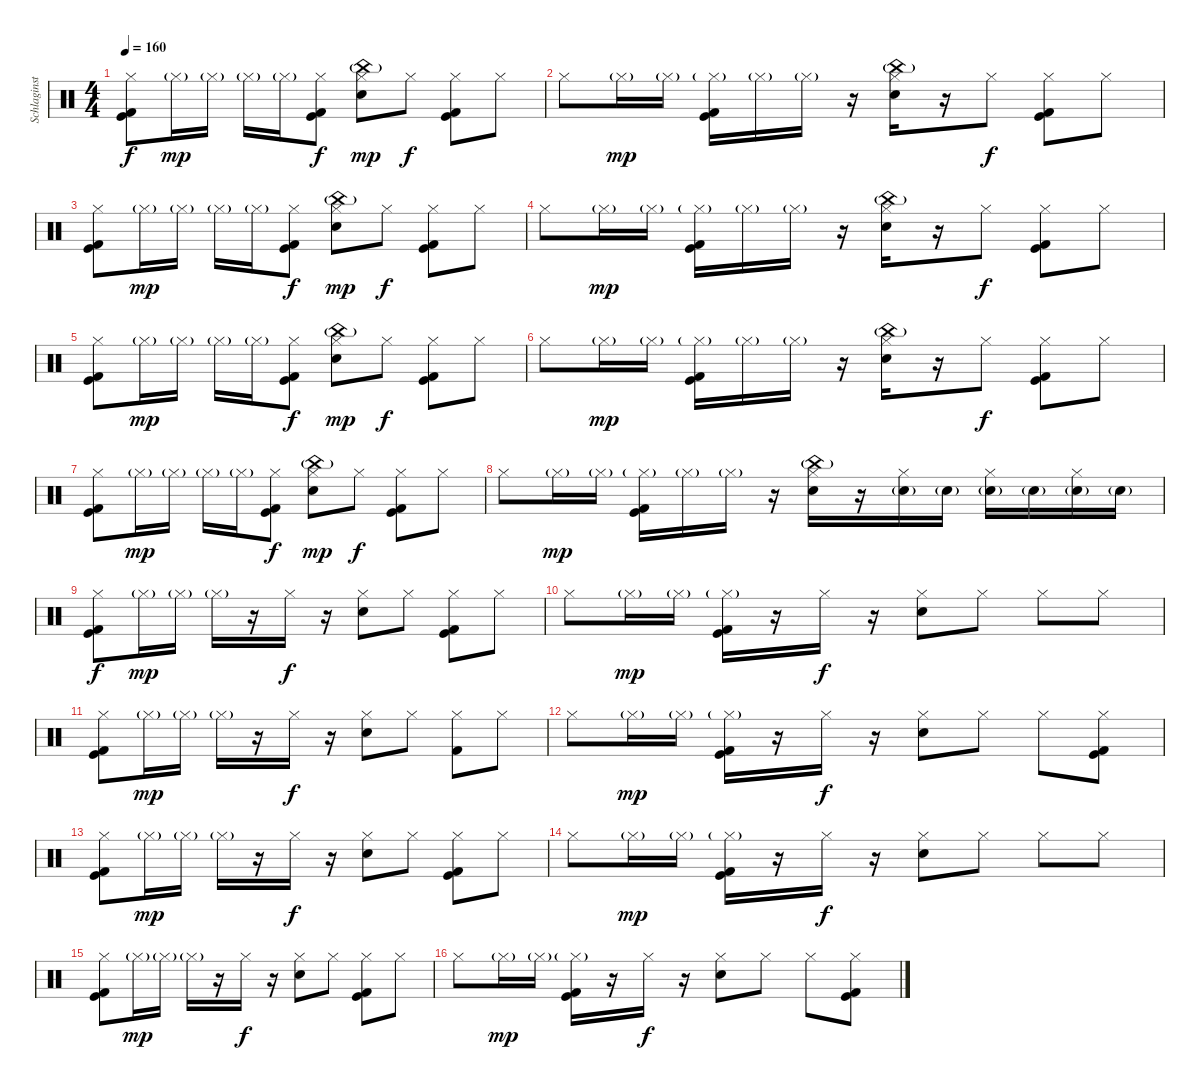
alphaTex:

\track ("Schlaginstrumente - Auswahl" "Schlaginst") {instrument percussion}
\staff {score}
\articulation defaults
\ts (4 4)
\tempo 160
\clef neutral
\ks c
("Hi-Hat (closed)" "Kick (hit)" "Kick (hit) 2").8{dy f} "Hi-Hat (closed)"{g}.16{dy mp} "Hi-Hat (closed)"{g}.16 "Hi-Hat (closed)"{g}.16 "Hi-Hat (closed)"{g}.16 ("Hi-Hat (closed)" "Kick (hit)" "Kick (hit) 2").8{dy f} ("Hi-Hat (closed)" "China (hit)"{g} "Snare (hit) 2").8{dy mp} "Hi-Hat (closed)".8{dy f} ("Hi-Hat (closed)" "Kick (hit)" "Kick (hit) 2").8 "Hi-Hat (closed)".8 |
"Hi-Hat (closed)".8 "Hi-Hat (closed)"{g}.16{dy mp} "Hi-Hat (closed)"{g}.16 ("Hi-Hat (closed)"{g} "Kick (hit)" "Kick (hit) 2").16 "Hi-Hat (closed)"{g}.16 "Hi-Hat (closed)"{g}.16 r.16 ("Hi-Hat (closed)" "China (hit)"{g} "Snare (hit) 2").16 r.16 "Hi-Hat (closed)".8{dy f} ("Hi-Hat (closed)" "Kick (hit)" "Kick (hit) 2").8 "Hi-Hat (closed)".8 |
("Hi-Hat (closed)" "Kick (hit)" "Kick (hit) 2").8 "Hi-Hat (closed)"{g}.16{dy mp} "Hi-Hat (closed)"{g}.16 "Hi-Hat (closed)"{g}.16 "Hi-Hat (closed)"{g}.16 ("Hi-Hat (closed)" "Kick (hit)" "Kick (hit) 2").8{dy f} ("Hi-Hat (closed)" "China (hit)"{g} "Snare (hit) 2").8{dy mp} "Hi-Hat (closed)".8{dy f} ("Hi-Hat (closed)" "Kick (hit)" "Kick (hit) 2").8 "Hi-Hat (closed)".8 |
"Hi-Hat (closed)".8 "Hi-Hat (closed)"{g}.16{dy mp} "Hi-Hat (closed)"{g}.16 ("Hi-Hat (closed)"{g} "Kick (hit)" "Kick (hit) 2").16 "Hi-Hat (closed)"{g}.16 "Hi-Hat (closed)"{g}.16 r.16 ("Hi-Hat (closed)" "China (hit)"{g} "Snare (hit) 2").16 r.16 "Hi-Hat (closed)".8{dy f} ("Hi-Hat (closed)" "Kick (hit)" "Kick (hit) 2").8 "Hi-Hat (closed)".8 |
("Hi-Hat (closed)" "Kick (hit)" "Kick (hit) 2").8 "Hi-Hat (closed)"{g}.16{dy mp} "Hi-Hat (closed)"{g}.16 "Hi-Hat (closed)"{g}.16 "Hi-Hat (closed)"{g}.16 ("Hi-Hat (closed)" "Kick (hit)" "Kick (hit) 2").8{dy f} ("Hi-Hat (closed)" "China (hit)"{g} "Snare (hit) 2").8{dy mp} "Hi-Hat (closed)".8{dy f} ("Hi-Hat (closed)" "Kick (hit)" "Kick (hit) 2").8 "Hi-Hat (closed)".8 |
"Hi-Hat (closed)".8 "Hi-Hat (closed)"{g}.16{dy mp} "Hi-Hat (closed)"{g}.16 ("Hi-Hat (closed)"{g} "Kick (hit)" "Kick (hit) 2").16 "Hi-Hat (closed)"{g}.16 "Hi-Hat (closed)"{g}.16 r.16 ("Hi-Hat (closed)" "China (hit)"{g} "Snare (hit) 2").16 r.16 "Hi-Hat (closed)".8{dy f} ("Hi-Hat (closed)" "Kick (hit)" "Kick (hit) 2").8 "Hi-Hat (closed)".8 |
("Hi-Hat (closed)" "Kick (hit)" "Kick (hit) 2").8 "Hi-Hat (closed)"{g}.16{dy mp} "Hi-Hat (closed)"{g}.16 "Hi-Hat (closed)"{g}.16 "Hi-Hat (closed)"{g}.16 ("Hi-Hat (closed)" "Kick (hit)" "Kick (hit) 2").8{dy f} ("Hi-Hat (closed)" "China (hit)"{g} "Snare (hit) 2").8{dy mp} "Hi-Hat (closed)".8{dy f} ("Hi-Hat (closed)" "Kick (hit)" "Kick (hit) 2").8 "Hi-Hat (closed)".8 |
"Hi-Hat (closed)".8 "Hi-Hat (closed)"{g}.16{dy mp} "Hi-Hat (closed)"{g}.16 ("Hi-Hat (closed)"{g} "Kick (hit)" "Kick (hit) 2").16 "Hi-Hat (closed)"{g}.16 "Hi-Hat (closed)"{g}.16 r.16 ("Hi-Hat (closed)" "China (hit)"{g} "Snare (hit) 2").16 r.16 ("Hi-Hat (closed)" "Snare (hit) 2"{g}).16 "Snare (hit) 2"{g}.16 ("Hi-Hat (closed)" "Snare (hit) 2"{g}).16 "Snare (hit) 2"{g}.16 ("Hi-Hat (closed)" "Snare (hit) 2"{g}).16 "Snare (hit) 2"{g}.16 |
("Hi-Hat (closed)" "Kick (hit)" "Kick (hit) 2").8{dy f} "Hi-Hat (closed)"{g}.16{dy mp} "Hi-Hat (closed)"{g}.16 "Hi-Hat (closed)"{g}.16 r.16 "Hi-Hat (closed)".16{dy f} r.16 ("Hi-Hat (closed)" "Snare (hit) 2").8 "Hi-Hat (closed)".8 ("Hi-Hat (closed)" "Kick (hit)" "Kick (hit) 2").8 "Hi-Hat (closed)".8 |
"Hi-Hat (closed)".8 "Hi-Hat (closed)"{g}.16{dy mp} "Hi-Hat (closed)"{g}.16 ("Hi-Hat (closed)"{g} "Kick (hit)" "Kick (hit) 2").16 r.16 "Hi-Hat (closed)".16{dy f} r.16 ("Hi-Hat (closed)" "Snare (hit) 2").8 "Hi-Hat (closed)".8 "Hi-Hat (closed)".8 "Hi-Hat (closed)".8 |
("Hi-Hat (closed)" "Kick (hit)" "Kick (hit) 2").8 "Hi-Hat (closed)"{g}.16{dy mp} "Hi-Hat (closed)"{g}.16 "Hi-Hat (closed)"{g}.16 r.16 "Hi-Hat (closed)".16{dy f} r.16 ("Hi-Hat (closed)" "Snare (hit) 2").8 "Hi-Hat (closed)".8 ("Hi-Hat (closed)" "Kick (hit) 2").8 "Hi-Hat (closed)".8 |
"Hi-Hat (closed)".8 "Hi-Hat (closed)"{g}.16{dy mp} "Hi-Hat (closed)"{g}.16 ("Hi-Hat (closed)"{g} "Kick (hit)" "Kick (hit) 2").16 r.16 "Hi-Hat (closed)".16{dy f} r.16 ("Hi-Hat (closed)" "Snare (hit) 2").8 "Hi-Hat (closed)".8 "Hi-Hat (closed)".8 ("Hi-Hat (closed)" "Kick (hit)" "Kick (hit) 2").8 |
("Hi-Hat (closed)" "Kick (hit)" "Kick (hit) 2").8 "Hi-Hat (closed)"{g}.16{dy mp} "Hi-Hat (closed)"{g}.16 "Hi-Hat (closed)"{g}.16 r.16 "Hi-Hat (closed)".16{dy f} r.16 ("Hi-Hat (closed)" "Snare (hit) 2").8 "Hi-Hat (closed)".8 ("Hi-Hat (closed)" "Kick (hit)" "Kick (hit) 2").8 "Hi-Hat (closed)".8 |
"Hi-Hat (closed)".8 "Hi-Hat (closed)"{g}.16{dy mp} "Hi-Hat (closed)"{g}.16 ("Hi-Hat (closed)"{g} "Kick (hit)" "Kick (hit) 2").16 r.16 "Hi-Hat (closed)".16{dy f} r.16 ("Hi-Hat (closed)" "Snare (hit) 2").8 "Hi-Hat (closed)".8 "Hi-Hat (closed)".8 "Hi-Hat (closed)".8 |
("Hi-Hat (closed)" "Kick (hit)" "Kick (hit) 2").8 "Hi-Hat (closed)"{g}.16{dy mp} "Hi-Hat (closed)"{g}.16 "Hi-Hat (closed)"{g}.16 r.16 "Hi-Hat (closed)".16{dy f} r.16 ("Hi-Hat (closed)" "Snare (hit) 2").8 "Hi-Hat (closed)".8 ("Hi-Hat (closed)" "Kick (hit)" "Kick (hit) 2").8 "Hi-Hat (closed)".8 |
"Hi-Hat (closed)".8 "Hi-Hat (closed)"{g}.16{dy mp} "Hi-Hat (closed)"{g}.16 ("Hi-Hat (closed)"{g} "Kick (hit)" "Kick (hit) 2").16 r.16 "Hi-Hat (closed)".16{dy f} r.16 ("Hi-Hat (closed)" "Snare (hit) 2").8 "Hi-Hat (closed)".8 "Hi-Hat (closed)".8 ("Hi-Hat (closed)" "Kick (hit)" "Kick (hit) 2").8
